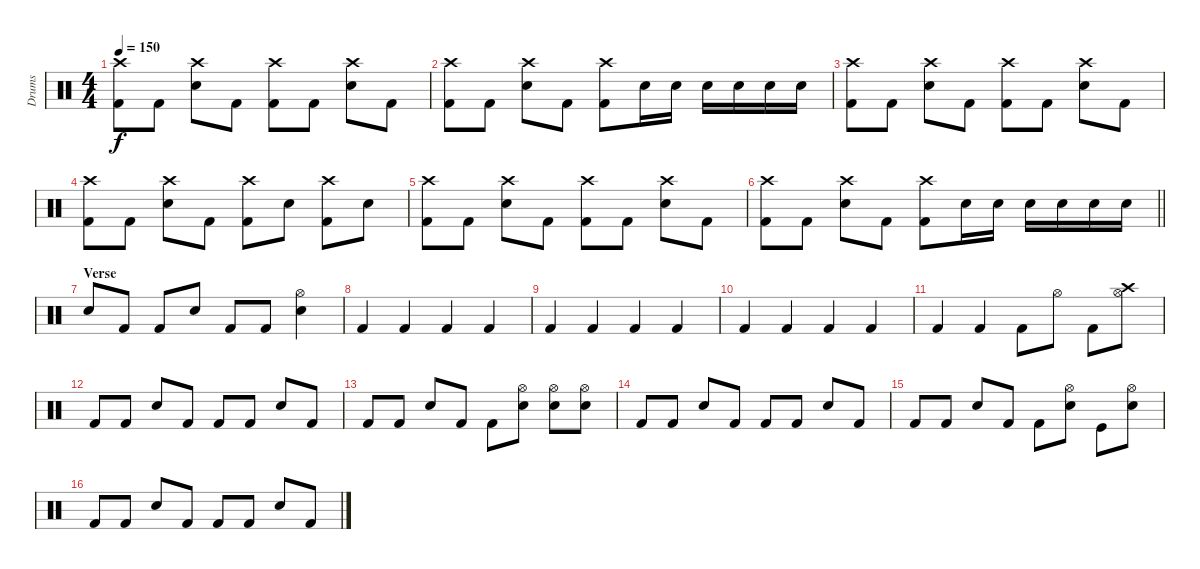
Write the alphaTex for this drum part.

\track ("Drums" "Drums") {instrument percussion}
\staff {score}
\articulation defaults
\ts (4 4)
\tempo 150
\clef neutral
\ks c
("Kick (hit) 2" "Crash high (hit)").8{dy f} "Kick (hit) 2".8 ("Snare (hit) 2" "Crash high (hit)").8 "Kick (hit) 2".8 ("Kick (hit) 2" "Crash high (hit)").8 "Kick (hit) 2".8 ("Snare (hit) 2" "Crash high (hit)").8 "Kick (hit) 2".8 |
("Kick (hit) 2" "Crash high (hit)").8 "Kick (hit) 2".8 ("Snare (hit) 2" "Crash high (hit)").8 "Kick (hit) 2".8 ("Kick (hit) 2" "Crash high (hit)").8 "Snare (hit) 2".16 "Snare (hit) 2".16 "Snare (hit) 2".16 "Snare (hit) 2".16 "Snare (hit) 2".16 "Snare (hit) 2".16 |
("Kick (hit) 2" "Crash high (hit)").8 "Kick (hit) 2".8 ("Snare (hit) 2" "Crash high (hit)").8 "Kick (hit) 2".8 ("Kick (hit) 2" "Crash high (hit)").8 "Kick (hit) 2".8 ("Snare (hit) 2" "Crash high (hit)").8 "Kick (hit) 2".8 |
("Kick (hit) 2" "Crash high (hit)").8 "Kick (hit) 2".8 ("Snare (hit) 2" "Crash high (hit)").8 "Kick (hit) 2".8 ("Kick (hit) 2" "Crash high (hit)").8 "Snare (hit) 2".8 ("Kick (hit) 2" "Crash high (hit)").8 "Snare (hit) 2".8 |
("Kick (hit) 2" "Crash high (hit)").8 "Kick (hit) 2".8 ("Snare (hit) 2" "Crash high (hit)").8 "Kick (hit) 2".8 ("Kick (hit) 2" "Crash high (hit)").8 "Kick (hit) 2".8 ("Snare (hit) 2" "Crash high (hit)").8 "Kick (hit) 2".8 |
\barLineRight lightlight
("Kick (hit) 2" "Crash high (hit)").8 "Kick (hit) 2".8 ("Snare (hit) 2" "Crash high (hit)").8 "Kick (hit) 2".8 ("Kick (hit) 2" "Crash high (hit)").8 "Snare (hit) 2".16 "Snare (hit) 2".16 "Snare (hit) 2".16 "Snare (hit) 2".16 "Snare (hit) 2".16 "Snare (hit) 2".16 |
\section ("" "Verse ")
"Snare (hit) 2".8 "Kick (hit) 2".8 "Kick (hit) 2".8 "Snare (hit) 2".8 "Kick (hit) 2".8 "Kick (hit) 2".8 ("Snare (hit) 2" "Hi-Hat (open)").4 |
"Kick (hit) 2".4 "Kick (hit) 2".4 "Kick (hit) 2".4 "Kick (hit) 2".4 |
"Kick (hit) 2".4 "Kick (hit) 2".4 "Kick (hit) 2".4 "Kick (hit) 2".4 |
"Kick (hit) 2".4 "Kick (hit) 2".4 "Kick (hit) 2".4 "Kick (hit) 2".4 |
"Kick (hit) 2".4 "Kick (hit) 2".4 "Kick (hit) 2".8 "Hi-Hat (open)".8 "Kick (hit) 2".8 ("Crash high (hit)" "Hi-Hat (open)").8 |
"Kick (hit) 2".8 "Kick (hit) 2".8 "Snare (hit) 2".8 "Kick (hit) 2".8 "Kick (hit) 2".8 "Kick (hit) 2".8 "Snare (hit) 2".8 "Kick (hit) 2".8 |
"Kick (hit) 2".8 "Kick (hit) 2".8 "Snare (hit) 2".8 "Kick (hit) 2".8 "Kick (hit) 2".8 ("Hi-Hat (open)" "Snare (hit) 2").8 ("Hi-Hat (open)" "Snare (hit) 2").8 ("Hi-Hat (open)" "Snare (hit) 2").8 |
"Kick (hit) 2".8 "Kick (hit) 2".8 "Snare (hit) 2".8 "Kick (hit) 2".8 "Kick (hit) 2".8 "Kick (hit) 2".8 "Snare (hit) 2".8 "Kick (hit) 2".8 |
"Kick (hit) 2".8 "Kick (hit) 2".8 "Snare (hit) 2".8 "Kick (hit) 2".8 "Kick (hit) 2".8 ("Hi-Hat (open)" "Snare (hit) 2").8 "Kick (hit)".8 ("Hi-Hat (open)" "Snare (hit) 2").8 |
"Kick (hit) 2".8 "Kick (hit) 2".8 "Snare (hit) 2".8 "Kick (hit) 2".8 "Kick (hit) 2".8 "Kick (hit) 2".8 "Snare (hit) 2".8 "Kick (hit) 2".8
